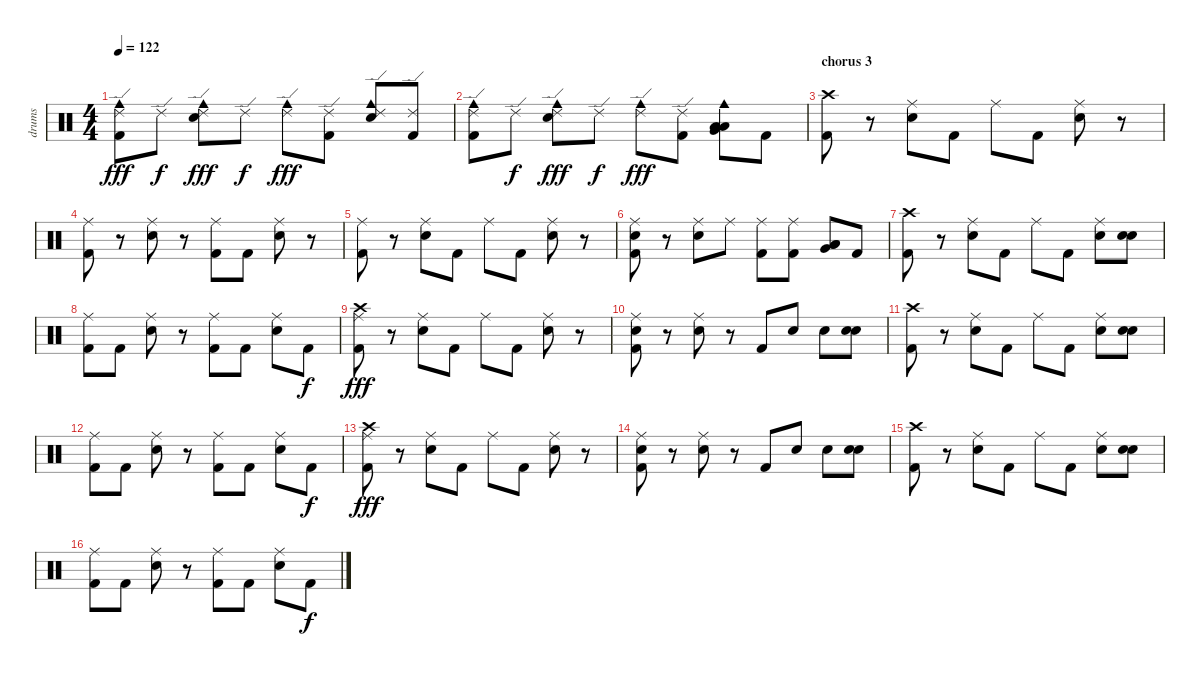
\track ("drums" "drums") {instrument percussion}
\staff {score}
\articulation defaults
\ts (4 4)
\tempo 122
\clef neutral
\ks c
("Ride (edge) 2" "Kick (hit) 2" "Cowbell medium (hit)").8{dy fff} "Ride (edge) 2".8{dy f} ("Electric Snare (hit)" "Ride (edge) 2" "Cowbell medium (hit)").8{dy fff} "Ride (edge) 2".8{dy f} ("Cowbell medium (hit)" "Ride (edge) 2").8{dy fff} ("Kick (hit) 2" "Ride (edge) 2").8 ("Ride (edge) 2" "Cowbell medium (hit)" "Electric Snare (hit)").8 ("Kick (hit) 2" "Ride (edge) 2").8 |
("Ride (edge) 2" "Cowbell medium (hit)" "Kick (hit) 2").8 "Ride (edge) 2".8{dy f} ("Cowbell medium (hit)" "Ride (edge) 2" "Electric Snare (hit)").8{dy fff} "Ride (edge) 2".8{dy f} ("Cowbell medium (hit)" "Ride (edge) 2").8{dy fff} ("Kick (hit) 2" "Ride (edge) 2").8 ("Low Tom (hit)" "Cowbell medium (hit)" "Low Tom (hit)" "Very Low Tom (hit)").8 "Kick (hit) 2".8 |
\section ("" "chorus 3")
("Kick (hit) 2" "Crash high (hit)").8 r.8 ("Ride (middle)" "Electric Snare (hit)").8 "Kick (hit) 2".8 "Ride (middle)".8 "Kick (hit) 2".8 ("Ride (middle)" "Electric Snare (hit)").8 r.8 |
("Ride (middle)" "Kick (hit) 2").8 r.8 ("Electric Snare (hit)" "Ride (middle)").8 r.8 ("Ride (middle)" "Kick (hit) 2").8 "Kick (hit) 2".8 ("Electric Snare (hit)" "Ride (middle)").8 r.8 |
("Ride (middle)" "Kick (hit) 2").8 r.8 ("Ride (middle)" "Electric Snare (hit)").8 "Kick (hit) 2".8 "Ride (middle)".8 "Kick (hit) 2".8 ("Electric Snare (hit)" "Ride (middle)").8 r.8 |
("Electric Snare (hit)" "Kick (hit) 2" "Ride (middle)").8 r.8 ("Electric Snare (hit)" "Ride (middle)").8 "Ride (middle)".8 ("Ride (middle)" "Kick (hit) 2").8 ("Ride (middle)" "Kick (hit) 2").8 ("Low Tom (hit)" "Low Tom (hit)" "Very Low Tom (hit)").8 "Kick (hit) 2".8 |
("Crash high (hit)" "Kick (hit) 2").8 r.8 ("Electric Snare (hit)" "Ride (middle)").8 "Kick (hit) 2".8 "Ride (middle)".8 "Kick (hit) 2".8 ("Ride (middle)" "Electric Snare (hit)").8 ("Electric Snare (hit)" "Electric Snare (hit)").8 |
("Kick (hit) 2" "Ride (middle)").8 "Kick (hit) 2".8 ("Electric Snare (hit)" "Ride (middle)").8 r.8 ("Kick (hit) 2" "Ride (middle)").8 "Kick (hit) 2".8 ("Electric Snare (hit)" "Ride (middle)").8 "Kick (hit) 2".8{dy f} |
("Ride (middle)" "Crash high (hit)" "Kick (hit) 2").8{dy fff} r.8 ("Electric Snare (hit)" "Ride (middle)").8 "Kick (hit) 2".8 "Ride (middle)".8 "Kick (hit) 2".8 ("Ride (middle)" "Electric Snare (hit)").8 r.8 |
("Electric Snare (hit)" "Kick (hit) 2" "Ride (middle)").8 r.8 ("Electric Snare (hit)" "Ride (middle)").8 r.8 "Kick (hit) 2".8 "Electric Snare (hit)".8 "Electric Snare (hit)".8 ("Electric Snare (hit)" "Electric Snare (hit)").8 |
("Crash high (hit)" "Kick (hit) 2").8 r.8 ("Electric Snare (hit)" "Ride (middle)").8 "Kick (hit) 2".8 "Ride (middle)".8 "Kick (hit) 2".8 ("Ride (middle)" "Electric Snare (hit)").8 ("Electric Snare (hit)" "Electric Snare (hit)").8 |
("Kick (hit) 2" "Ride (middle)").8 "Kick (hit) 2".8 ("Electric Snare (hit)" "Ride (middle)").8 r.8 ("Kick (hit) 2" "Ride (middle)").8 "Kick (hit) 2".8 ("Electric Snare (hit)" "Ride (middle)").8 "Kick (hit) 2".8{dy f} |
("Ride (middle)" "Crash high (hit)" "Kick (hit) 2").8{dy fff} r.8 ("Electric Snare (hit)" "Ride (middle)").8 "Kick (hit) 2".8 "Ride (middle)".8 "Kick (hit) 2".8 ("Ride (middle)" "Electric Snare (hit)").8 r.8 |
("Electric Snare (hit)" "Kick (hit) 2" "Ride (middle)").8 r.8 ("Electric Snare (hit)" "Ride (middle)").8 r.8 "Kick (hit) 2".8 "Electric Snare (hit)".8 "Electric Snare (hit)".8 ("Electric Snare (hit)" "Electric Snare (hit)").8 |
("Crash high (hit)" "Kick (hit) 2").8 r.8 ("Electric Snare (hit)" "Ride (middle)").8 "Kick (hit) 2".8 "Ride (middle)".8 "Kick (hit) 2".8 ("Ride (middle)" "Electric Snare (hit)").8 ("Electric Snare (hit)" "Electric Snare (hit)").8 |
("Kick (hit) 2" "Ride (middle)").8 "Kick (hit) 2".8 ("Electric Snare (hit)" "Ride (middle)").8 r.8 ("Kick (hit) 2" "Ride (middle)").8 "Kick (hit) 2".8 ("Electric Snare (hit)" "Ride (middle)").8 "Kick (hit) 2".8{dy f}
